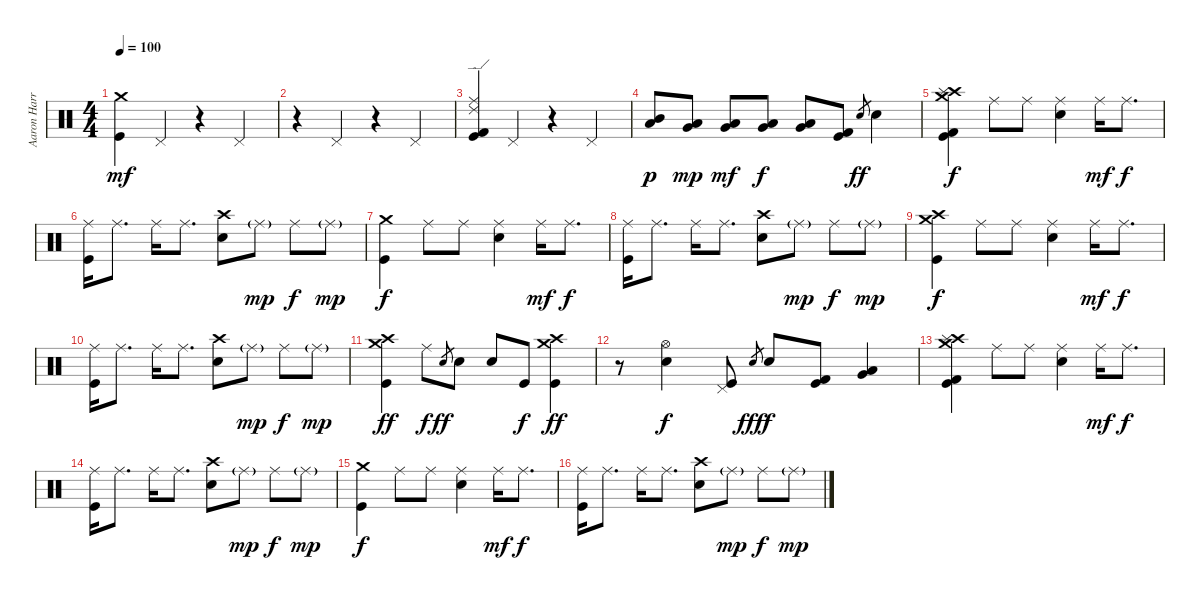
\track ("Aaron Harris" "Aaron Harr") {instrument percussion}
\staff {score}
\articulation defaults
\ts (4 4)
\tempo 100
\clef neutral
\ks c
("Crash medium (hit)" "Kick (hit)").4{dy mf} "Pedal Hi-Hat (hit)".4 r.4 "Pedal Hi-Hat (hit)".4 |
r.4 "Pedal Hi-Hat (hit)".4 r.4 "Pedal Hi-Hat (hit)".4 |
("Ride (middle)" "Ride (edge) 2" "Kick (hit) 2" "Kick (hit)").4 "Pedal Hi-Hat (hit)".4 r.4 "Pedal Hi-Hat (hit)".4 |
("Mid Tom (hit)" "Low Tom (hit)").8{dy p} ("Low Tom (hit)" "Very Low Tom (hit)").8{dy mp} ("Low Tom (hit)" "Very Low Tom (hit)").8{dy mf} ("Low Tom (hit)" "Very Low Tom (hit)").8{dy f} ("Very Low Tom (hit)" "Low Floor Tom (hit)").8 ("Kick (hit) 2" "Kick (hit)").8 "Electric Snare (hit)".8{gr dy ff} "Electric Snare (hit)".4 |
("Crash medium (hit)" "Crash high (hit)" "Splash (hit)" "Kick (hit) 2" "Kick (hit)").4{dy f} "Ride (middle)".8 "Ride (middle)".8 ("Ride (middle)" "Electric Snare (hit)").4 "Ride (middle)".16{dy mf} "Ride (middle)".8{d dy f} |
("Ride (middle)" "Kick (hit)").16 "Ride (middle)".8{d} "Ride (middle)".16 "Ride (middle)".8{d} ("Crash high (hit)" "Electric Snare (hit)").8 "Ride (middle)"{g}.8{dy mp} "Ride (middle)".8{dy f} "Ride (middle)"{g}.8{dy mp} |
("Crash medium (hit)" "Kick (hit)").4{dy f} "Ride (middle)".8 "Ride (middle)".8 ("Ride (middle)" "Electric Snare (hit)").4 "Ride (middle)".16{dy mf} "Ride (middle)".8{d dy f} |
("Ride (middle)" "Kick (hit)").16 "Ride (middle)".8{d} "Ride (middle)".16 "Ride (middle)".8{d} ("Crash high (hit)" "Electric Snare (hit)").8 "Ride (middle)"{g}.8{dy mp} "Ride (middle)".8{dy f} "Ride (middle)"{g}.8{dy mp} |
("Crash medium (hit)" "Crash high (hit)" "Kick (hit)").4{dy f} "Ride (middle)".8 "Ride (middle)".8 ("Ride (middle)" "Electric Snare (hit)").4 "Ride (middle)".16{dy mf} "Ride (middle)".8{d dy f} |
("Ride (middle)" "Kick (hit)").16 "Ride (middle)".8{d} "Ride (middle)".16 "Ride (middle)".8{d} ("Crash high (hit)" "Electric Snare (hit)").8 "Ride (middle)"{g}.8{dy mp} "Ride (middle)".8{dy f} "Ride (middle)"{g}.8{dy mp} |
("Crash medium (hit)" "Crash high (hit)" "Kick (hit)").4{dy ff} "Ride (middle)".8{dy f} "Electric Snare (hit)".8{gr dy ff} "Electric Snare (hit)".8 "Electric Snare (hit)".8 "Kick (hit)".8{dy f} ("Crash medium (hit)" "Crash high (hit)" "Kick (hit)").4{dy ff} |
r.8 ("Hi-Hat (open)" "Electric Snare (hit)").4{dy f} ("Pedal Hi-Hat (hit)" "Kick (hit)").8 "Electric Snare (hit)".8{gr dy fff} "Electric Snare (hit)".8{dy f} ("Kick (hit) 2" "Kick (hit)").8 ("Low Tom (hit)" "Very Low Tom (hit)").4 |
("Crash medium (hit)" "Crash high (hit)" "Splash (hit)" "Kick (hit) 2" "Kick (hit)").4 "Ride (middle)".8 "Ride (middle)".8 ("Ride (middle)" "Electric Snare (hit)").4 "Ride (middle)".16{dy mf} "Ride (middle)".8{d dy f} |
("Ride (middle)" "Kick (hit)").16 "Ride (middle)".8{d} "Ride (middle)".16 "Ride (middle)".8{d} ("Crash high (hit)" "Electric Snare (hit)").8 "Ride (middle)"{g}.8{dy mp} "Ride (middle)".8{dy f} "Ride (middle)"{g}.8{dy mp} |
("Crash medium (hit)" "Kick (hit)").4{dy f} "Ride (middle)".8 "Ride (middle)".8 ("Ride (middle)" "Electric Snare (hit)").4 "Ride (middle)".16{dy mf} "Ride (middle)".8{d dy f} |
("Ride (middle)" "Kick (hit)").16 "Ride (middle)".8{d} "Ride (middle)".16 "Ride (middle)".8{d} ("Crash high (hit)" "Electric Snare (hit)").8 "Ride (middle)"{g}.8{dy mp} "Ride (middle)".8{dy f} "Ride (middle)"{g}.8{dy mp}
